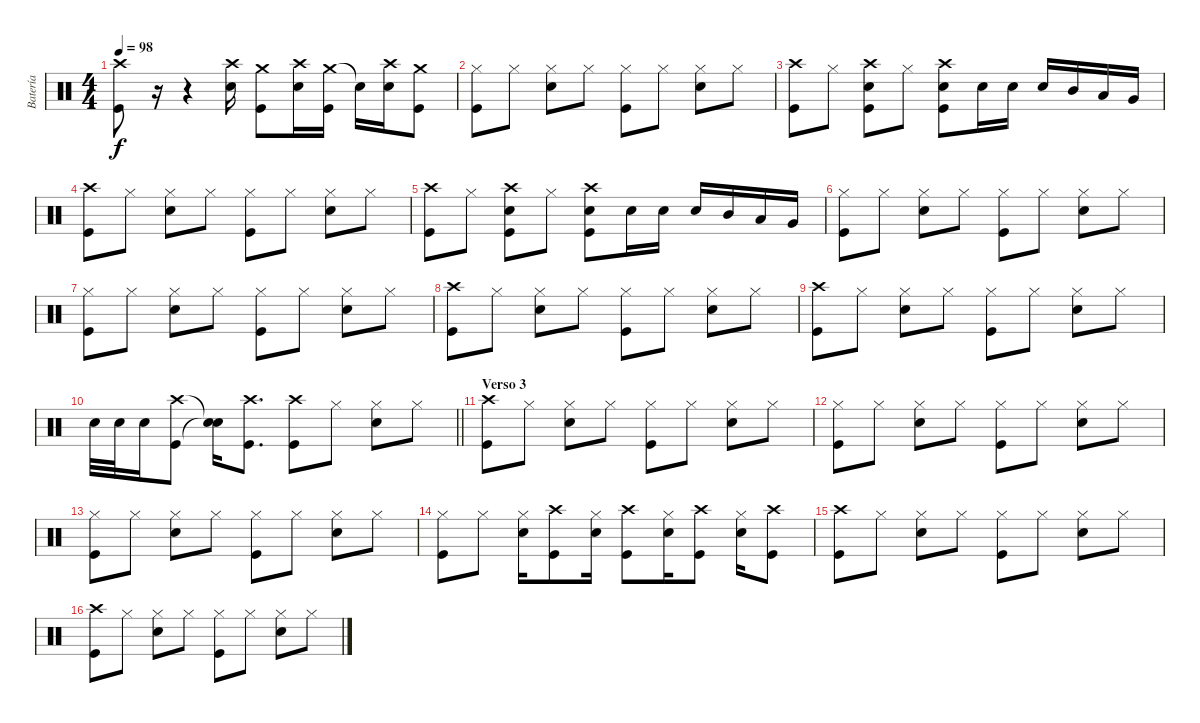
\track ("Batería" "Batería") {instrument percussion}
\staff {score}
\articulation defaults
\ts (4 4)
\tempo 98
\clef neutral
\ks c
("Crash high (hit)" "Kick (hit)").8{dy f} r.16 r.4 ("Crash high (hit)" "Electric Snare (hit)").16 ("Crash medium (hit)" "Kick (hit)").8 ("Crash high (hit)" "Electric Snare (hit)").16 ("Crash medium (hit)" "Kick (hit)").16 "Snare (hit)"{t}.16 ("Crash high (hit)" "Electric Snare (hit)").16 ("Crash medium (hit)" "Kick (hit)").8 |
("Hi-Hat (closed)" "Kick (hit)").8 "Hi-Hat (closed)".8 ("Hi-Hat (closed)" "Electric Snare (hit)").8 "Hi-Hat (closed)".8 ("Hi-Hat (closed)" "Kick (hit)").8 "Hi-Hat (closed)".8 ("Hi-Hat (closed)" "Electric Snare (hit)").8 "Hi-Hat (closed)".8 |
("Crash high (hit)" "Kick (hit)").8 "Hi-Hat (closed)".8 ("Crash high (hit)" "Electric Snare (hit)" "Kick (hit)").8 "Hi-Hat (closed)".8 ("Crash high (hit)" "Electric Snare (hit)" "Kick (hit)").8 "Electric Snare (hit)".16 "Electric Snare (hit)".16 "Electric Snare (hit)".16 "Mid Tom (hit)".16 "Low Tom (hit)".16 "Very Low Tom (hit)".16 |
("Crash high (hit)" "Kick (hit)").8 "Hi-Hat (closed)".8 ("Hi-Hat (closed)" "Electric Snare (hit)").8 "Hi-Hat (closed)".8 ("Hi-Hat (closed)" "Kick (hit)").8 "Hi-Hat (closed)".8 ("Hi-Hat (closed)" "Electric Snare (hit)").8 "Hi-Hat (closed)".8 |
("Crash high (hit)" "Kick (hit)").8 "Hi-Hat (closed)".8 ("Crash high (hit)" "Electric Snare (hit)" "Kick (hit)").8 "Hi-Hat (closed)".8 ("Crash high (hit)" "Electric Snare (hit)" "Kick (hit)").8 "Electric Snare (hit)".16 "Electric Snare (hit)".16 "Electric Snare (hit)".16 "Mid Tom (hit)".16 "Low Tom (hit)".16 "Very Low Tom (hit)".16 |
("Hi-Hat (closed)" "Kick (hit)").8 "Hi-Hat (closed)".8 ("Hi-Hat (closed)" "Electric Snare (hit)").8 "Hi-Hat (closed)".8 ("Hi-Hat (closed)" "Kick (hit)").8 "Hi-Hat (closed)".8 ("Hi-Hat (closed)" "Electric Snare (hit)").8 "Hi-Hat (closed)".8 |
("Hi-Hat (closed)" "Kick (hit)").8 "Hi-Hat (closed)".8 ("Hi-Hat (closed)" "Electric Snare (hit)").8 "Hi-Hat (closed)".8 ("Hi-Hat (closed)" "Kick (hit)").8 "Hi-Hat (closed)".8 ("Hi-Hat (closed)" "Electric Snare (hit)").8 "Hi-Hat (closed)".8 |
("Crash high (hit)" "Kick (hit)").8 "Hi-Hat (closed)".8 ("Hi-Hat (closed)" "Electric Snare (hit)").8 "Hi-Hat (closed)".8 ("Hi-Hat (closed)" "Kick (hit)").8 "Hi-Hat (closed)".8 ("Hi-Hat (closed)" "Electric Snare (hit)").8 "Hi-Hat (closed)".8 |
("Crash high (hit)" "Kick (hit)").8 "Hi-Hat (closed)".8 ("Hi-Hat (closed)" "Electric Snare (hit)").8 "Hi-Hat (closed)".8 ("Hi-Hat (closed)" "Kick (hit)").8 "Hi-Hat (closed)".8 ("Hi-Hat (closed)" "Electric Snare (hit)").8 "Hi-Hat (closed)".8 |
\barLineRight lightlight "Electric Snare (hit)".32 "Electric Snare (hit)".32 "Electric Snare (hit)".16
("Crash high (hit)" "Kick (hit)").8 ("Snare (hit)"{t} "Snare (hit)"{t}).16 ("Crash high (hit)" "Kick (hit)").8{d} ("Crash high (hit)" "Kick (hit)").8 "Hi-Hat (closed)".8 ("Hi-Hat (closed)" "Electric Snare (hit)").8 "Hi-Hat (closed)".8 |
\section ("" "Verso 3")
("Crash high (hit)" "Kick (hit)").8 "Hi-Hat (closed)".8 ("Hi-Hat (closed)" "Electric Snare (hit)").8 "Hi-Hat (closed)".8 ("Hi-Hat (closed)" "Kick (hit)").8 "Hi-Hat (closed)".8 ("Hi-Hat (closed)" "Electric Snare (hit)").8 "Hi-Hat (closed)".8 |
("Hi-Hat (closed)" "Kick (hit)").8 "Hi-Hat (closed)".8 ("Hi-Hat (closed)" "Electric Snare (hit)").8 "Hi-Hat (closed)".8 ("Hi-Hat (closed)" "Kick (hit)").8 "Hi-Hat (closed)".8 ("Hi-Hat (closed)" "Electric Snare (hit)").8 "Hi-Hat (closed)".8 |
("Hi-Hat (closed)" "Kick (hit)").8 "Hi-Hat (closed)".8 ("Hi-Hat (closed)" "Electric Snare (hit)").8 "Hi-Hat (closed)".8 ("Hi-Hat (closed)" "Kick (hit)").8 "Hi-Hat (closed)".8 ("Hi-Hat (closed)" "Electric Snare (hit)").8 "Hi-Hat (closed)".8 |
("Hi-Hat (closed)" "Kick (hit)").8 "Hi-Hat (closed)".8 ("Hi-Hat (closed)" "Electric Snare (hit)").16 ("Crash high (hit)" "Kick (hit)").8 ("Hi-Hat (closed)" "Electric Snare (hit)").16 ("Crash high (hit)" "Kick (hit)").8 ("Hi-Hat (closed)" "Electric Snare (hit)").16 ("Crash high (hit)" "Kick (hit)").8 ("Hi-Hat (closed)" "Electric Snare (hit)").16 ("Crash high (hit)" "Kick (hit)").8 |
("Crash high (hit)" "Kick (hit)").8 "Hi-Hat (closed)".8 ("Hi-Hat (closed)" "Electric Snare (hit)").8 "Hi-Hat (closed)".8 ("Hi-Hat (closed)" "Kick (hit)").8 "Hi-Hat (closed)".8 ("Hi-Hat (closed)" "Electric Snare (hit)").8 "Hi-Hat (closed)".8 |
("Crash high (hit)" "Kick (hit)").8 "Hi-Hat (closed)".8 ("Hi-Hat (closed)" "Electric Snare (hit)").8 "Hi-Hat (closed)".8 ("Hi-Hat (closed)" "Kick (hit)").8 "Hi-Hat (closed)".8 ("Hi-Hat (closed)" "Electric Snare (hit)").8 "Hi-Hat (closed)".8
